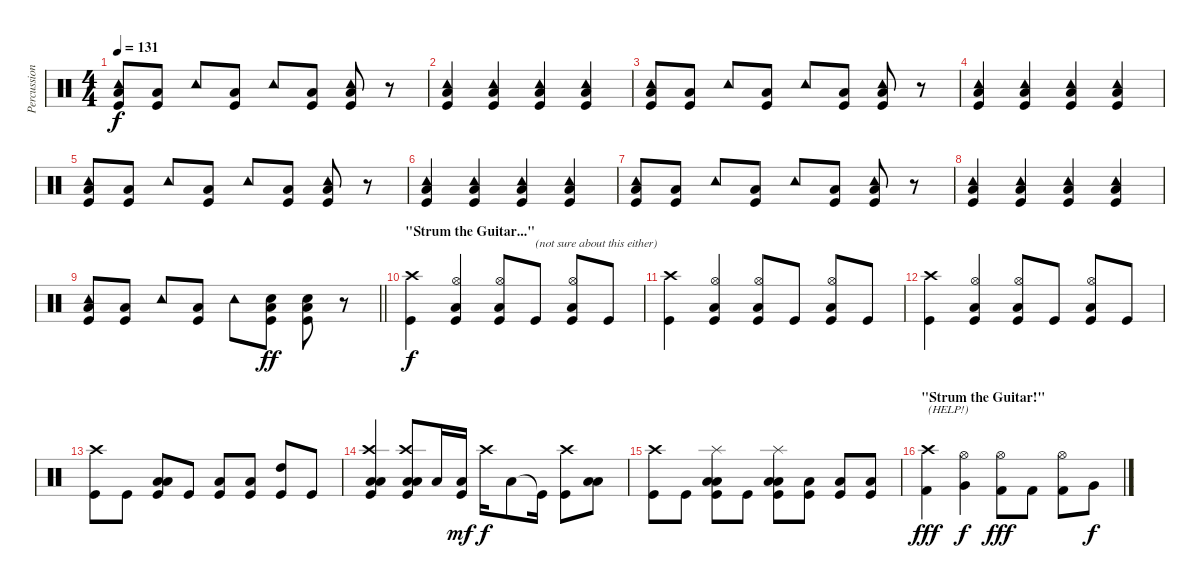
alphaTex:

\track ("Percussion" "Percussion") {instrument percussion}
\staff {score}
\articulation defaults
\ts (4 4)
\tempo 131
\clef neutral
\ks c
("Tambourine (hit)" "Low Floor Tom (hit)" "Kick (hit)").8{dy f} ("Low Floor Tom (hit)" "Kick (hit)").8 "Tambourine (hit)".8 ("Low Floor Tom (hit)" "Kick (hit)").8 "Tambourine (hit)".8 ("Low Floor Tom (hit)" "Kick (hit)").8 ("Tambourine (hit)" "Low Floor Tom (hit)" "Kick (hit)").8 r.8 |
("Tambourine (hit)" "Low Floor Tom (hit)" "Kick (hit)").4 ("Tambourine (hit)" "Low Floor Tom (hit)" "Kick (hit)").4 ("Tambourine (hit)" "Low Floor Tom (hit)" "Kick (hit)").4 ("Tambourine (hit)" "Low Floor Tom (hit)" "Kick (hit)").4 |
("Tambourine (hit)" "Low Floor Tom (hit)" "Kick (hit)").8 ("Low Floor Tom (hit)" "Kick (hit)").8 "Tambourine (hit)".8 ("Low Floor Tom (hit)" "Kick (hit)").8 "Tambourine (hit)".8 ("Low Floor Tom (hit)" "Kick (hit)").8 ("Tambourine (hit)" "Low Floor Tom (hit)" "Kick (hit)").8 r.8 |
("Tambourine (hit)" "Low Floor Tom (hit)" "Kick (hit)").4 ("Tambourine (hit)" "Low Floor Tom (hit)" "Kick (hit)").4 ("Tambourine (hit)" "Low Floor Tom (hit)" "Kick (hit)").4 ("Tambourine (hit)" "Low Floor Tom (hit)" "Kick (hit)").4 |
("Tambourine (hit)" "Low Floor Tom (hit)" "Kick (hit)").8 ("Low Floor Tom (hit)" "Kick (hit)").8 "Tambourine (hit)".8 ("Low Floor Tom (hit)" "Kick (hit)").8 "Tambourine (hit)".8 ("Low Floor Tom (hit)" "Kick (hit)").8 ("Tambourine (hit)" "Low Floor Tom (hit)" "Kick (hit)").8 r.8 |
("Tambourine (hit)" "Low Floor Tom (hit)" "Kick (hit)").4 ("Tambourine (hit)" "Low Floor Tom (hit)" "Kick (hit)").4 ("Tambourine (hit)" "Low Floor Tom (hit)" "Kick (hit)").4 ("Tambourine (hit)" "Low Floor Tom (hit)" "Kick (hit)").4 |
("Tambourine (hit)" "Low Floor Tom (hit)" "Kick (hit)").8 ("Low Floor Tom (hit)" "Kick (hit)").8 "Tambourine (hit)".8 ("Low Floor Tom (hit)" "Kick (hit)").8 "Tambourine (hit)".8 ("Low Floor Tom (hit)" "Kick (hit)").8 ("Tambourine (hit)" "Low Floor Tom (hit)" "Kick (hit)").8 r.8 |
("Tambourine (hit)" "Low Floor Tom (hit)" "Kick (hit)").4 ("Tambourine (hit)" "Low Floor Tom (hit)" "Kick (hit)").4 ("Tambourine (hit)" "Low Floor Tom (hit)" "Kick (hit)").4 ("Tambourine (hit)" "Low Floor Tom (hit)" "Kick (hit)").4 |
\barLineRight lightlight
("Tambourine (hit)" "Low Floor Tom (hit)" "Kick (hit)").8 ("Low Floor Tom (hit)" "Kick (hit)").8 "Tambourine (hit)".8 ("Low Floor Tom (hit)" "Kick (hit)").8 "Tambourine (hit)".8 ("Snare (hit) 2" "Low Floor Tom (hit)" "Kick (hit)").8{dy ff} ("Snare (hit) 2" "Low Floor Tom (hit)" "Kick (hit)").8 r.8 |
\section ("" "\"Strum the Guitar...\"")
("Crash high (hit)" "Kick (hit)").4{dy f} ("Hi-Hat (open)" "Low Tom (hit)" "Kick (hit)").4 ("Hi-Hat (open)" "Low Tom (hit)" "Kick (hit)").8 "Kick (hit)".8{txt "(not sure about this either)"} ("Hi-Hat (open)" "Low Tom (hit)" "Kick (hit)").8 "Kick (hit)".8 |
("Crash high (hit)" "Kick (hit)").4 ("Hi-Hat (open)" "Low Tom (hit)" "Kick (hit)").4 ("Hi-Hat (open)" "Low Tom (hit)" "Kick (hit)").8 "Kick (hit)".8 ("Hi-Hat (open)" "Low Tom (hit)" "Kick (hit)").8 "Kick (hit)".8 |
("Crash high (hit)" "Kick (hit)").4 ("Hi-Hat (open)" "Low Tom (hit)" "Kick (hit)").4 ("Hi-Hat (open)" "Low Tom (hit)" "Kick (hit)").8 "Kick (hit)".8 ("Hi-Hat (open)" "Low Tom (hit)" "Kick (hit)").8 "Kick (hit)".8 |
("Crash high (hit)" "Kick (hit)").8 "Kick (hit)".8 ("Low Tom (hit)" "Low Floor Tom (hit)" "Kick (hit)").8 "Kick (hit)".8 ("Low Tom (hit)" "Kick (hit)").8 ("Low Tom (hit)" "Kick (hit)").8 ("High Tom (hit)" "Kick (hit)").8 "Kick (hit)".8 |
("Crash high (hit)" "Low Tom (hit)" "Low Floor Tom (hit)" "Kick (hit)").4 ("Crash high (hit)" "Low Tom (hit)" "Low Floor Tom (hit)" "Kick (hit)").8 "Low Tom (hit)".16 ("Low Tom (hit)" "Kick (hit)").16{dy mf} "Crash high (hit)".16{dy f} "Low Tom (hit)".8 "Kick (hit)"{t}.16 ("Crash high (hit)" "Kick (hit)").8 ("Low Tom (hit)" "Low Floor Tom (hit)").8 |
("Crash high (hit)" "Kick (hit)").8 "Kick (hit)".8 ("Splash (hit)" "Low Tom (hit)" "Low Floor Tom (hit)" "Kick (hit)").8 "Kick (hit)".8 ("Splash (hit)" "Low Tom (hit)" "Low Floor Tom (hit)" "Kick (hit)").8 ("Low Tom (hit)" "Kick (hit)").8 ("Low Tom (hit)" "Kick (hit)").8 ("Low Floor Tom (hit)" "Kick (hit)").8 |
\section ("" "\"Strum the Guitar!\"")
("Crash high (hit)" "Kick (hit) 2").4{txt "(HELP!)" dy fff} ("Hi-Hat (open)" "Very Low Tom (hit)").4{dy f} ("Hi-Hat (open)" "Kick (hit) 2").8{dy fff} "Kick (hit) 2".8 ("Hi-Hat (open)" "Kick (hit) 2").8 "Very Low Tom (hit)".8{dy f}
